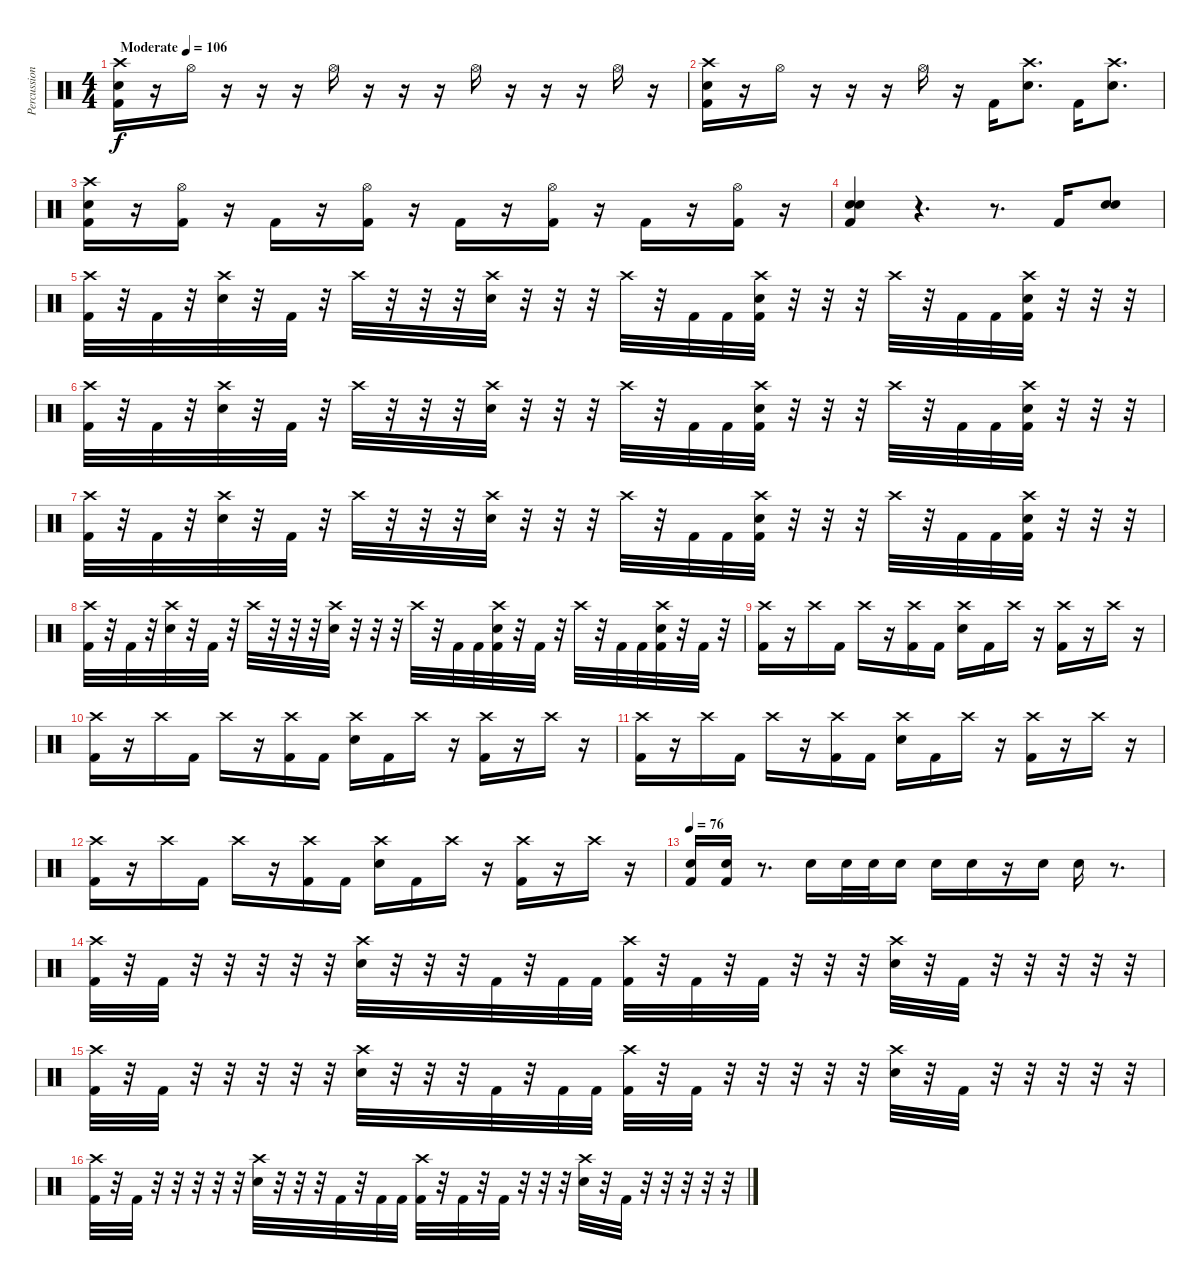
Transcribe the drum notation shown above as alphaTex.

\track ("Percussion" "Percussion") {instrument percussion}
\staff {score}
\articulation defaults
\ts (4 4)
\tempo (106 "Moderate")
\clef neutral
\ks c
("Crash high (hit)" "Electric Snare (hit)" "Kick (hit) 2").16{dy f} r.16 "Hi-Hat (open)".16 r.16 r.16 r.16 "Hi-Hat (open)".16 r.16 r.16 r.16 "Hi-Hat (open)".16 r.16 r.16 r.16 "Hi-Hat (open)".16 r.16 |
("Crash high (hit)" "Electric Snare (hit)" "Kick (hit) 2").16 r.16 "Hi-Hat (open)".16 r.16 r.16 r.16 "Hi-Hat (open)".16 r.16 "Kick (hit) 2".16 ("Crash high (hit)" "Electric Snare (hit)").8{d} "Kick (hit) 2".16 ("Crash high (hit)" "Electric Snare (hit)").8{d} |
("Crash high (hit)" "Electric Snare (hit)" "Kick (hit) 2").16 r.16 ("Hi-Hat (open)" "Kick (hit) 2").16 r.16 "Kick (hit) 2".16 r.16 ("Hi-Hat (open)" "Kick (hit) 2").16 r.16 "Kick (hit) 2".16 r.16 ("Hi-Hat (open)" "Kick (hit) 2").16 r.16 "Kick (hit) 2".16 r.16 ("Hi-Hat (open)" "Kick (hit) 2").16 r.16 |
("Electric Snare (hit)" "Electric Snare (hit)" "Kick (hit) 2").4 r.4{d} r.8{d} "Kick (hit) 2".16 ("Electric Snare (hit)" "Electric Snare (hit)").8 |
("Crash high (hit)" "Kick (hit) 2").32 r.32 "Kick (hit) 2".32 r.32 ("Crash high (hit)" "Electric Snare (hit)").32 r.32 "Kick (hit) 2".32 r.32 "Crash high (hit)".32 r.32 r.32 r.32 ("Crash high (hit)" "Electric Snare (hit)").32 r.32 r.32 r.32 "Crash high (hit)".32 r.32 "Kick (hit) 2".32 "Kick (hit) 2".32 ("Crash high (hit)" "Electric Snare (hit)" "Kick (hit) 2").32 r.32 r.32 r.32 "Crash high (hit)".32 r.32 "Kick (hit) 2".32 "Kick (hit) 2".32 ("Crash high (hit)" "Electric Snare (hit)" "Kick (hit) 2").32 r.32 r.32 r.32 |
("Crash high (hit)" "Kick (hit) 2").32 r.32 "Kick (hit) 2".32 r.32 ("Crash high (hit)" "Electric Snare (hit)").32 r.32 "Kick (hit) 2".32 r.32 "Crash high (hit)".32 r.32 r.32 r.32 ("Crash high (hit)" "Electric Snare (hit)").32 r.32 r.32 r.32 "Crash high (hit)".32 r.32 "Kick (hit) 2".32 "Kick (hit) 2".32 ("Crash high (hit)" "Electric Snare (hit)" "Kick (hit) 2").32 r.32 r.32 r.32 "Crash high (hit)".32 r.32 "Kick (hit) 2".32 "Kick (hit) 2".32 ("Crash high (hit)" "Electric Snare (hit)" "Kick (hit) 2").32 r.32 r.32 r.32 |
("Crash high (hit)" "Kick (hit) 2").32 r.32 "Kick (hit) 2".32 r.32 ("Crash high (hit)" "Electric Snare (hit)").32 r.32 "Kick (hit) 2".32 r.32 "Crash high (hit)".32 r.32 r.32 r.32 ("Crash high (hit)" "Electric Snare (hit)").32 r.32 r.32 r.32 "Crash high (hit)".32 r.32 "Kick (hit) 2".32 "Kick (hit) 2".32 ("Crash high (hit)" "Electric Snare (hit)" "Kick (hit) 2").32 r.32 r.32 r.32 "Crash high (hit)".32 r.32 "Kick (hit) 2".32 "Kick (hit) 2".32 ("Crash high (hit)" "Electric Snare (hit)" "Kick (hit) 2").32 r.32 r.32 r.32 |
("Crash high (hit)" "Kick (hit) 2").32 r.32 "Kick (hit) 2".32 r.32 ("Crash high (hit)" "Electric Snare (hit)").32 r.32 "Kick (hit) 2".32 r.32 "Crash high (hit)".32 r.32 r.32 r.32 ("Crash high (hit)" "Electric Snare (hit)").32 r.32 r.32 r.32 "Crash high (hit)".32 r.32 "Kick (hit) 2".32 "Kick (hit) 2".32 ("Crash high (hit)" "Electric Snare (hit)" "Kick (hit) 2").32 r.32 "Kick (hit) 2".32 r.32 "Crash high (hit)".32 r.32 "Kick (hit) 2".32 "Kick (hit) 2".32 ("Crash high (hit)" "Electric Snare (hit)" "Kick (hit) 2").32 r.32 "Kick (hit) 2".32 r.32 |
("Crash high (hit)" "Kick (hit) 2").16 r.16 "Crash high (hit)".16 "Kick (hit) 2".16 "Crash high (hit)".16 r.16 ("Crash high (hit)" "Kick (hit) 2").16 "Kick (hit) 2".16 ("Crash high (hit)" "Electric Snare (hit)").16 "Kick (hit) 2".16 "Crash high (hit)".16 r.16 ("Crash high (hit)" "Kick (hit) 2").16 r.16 "Crash high (hit)".16 r.16 |
("Crash high (hit)" "Kick (hit) 2").16 r.16 "Crash high (hit)".16 "Kick (hit) 2".16 "Crash high (hit)".16 r.16 ("Crash high (hit)" "Kick (hit) 2").16 "Kick (hit) 2".16 ("Crash high (hit)" "Electric Snare (hit)").16 "Kick (hit) 2".16 "Crash high (hit)".16 r.16 ("Crash high (hit)" "Kick (hit) 2").16 r.16 "Crash high (hit)".16 r.16 |
("Crash high (hit)" "Kick (hit) 2").16 r.16 "Crash high (hit)".16 "Kick (hit) 2".16 "Crash high (hit)".16 r.16 ("Crash high (hit)" "Kick (hit) 2").16 "Kick (hit) 2".16 ("Crash high (hit)" "Electric Snare (hit)").16 "Kick (hit) 2".16 "Crash high (hit)".16 r.16 ("Crash high (hit)" "Kick (hit) 2").16 r.16 "Crash high (hit)".16 r.16 |
("Crash high (hit)" "Kick (hit) 2").16 r.16 "Crash high (hit)".16 "Kick (hit) 2".16 "Crash high (hit)".16 r.16 ("Crash high (hit)" "Kick (hit) 2").16 "Kick (hit) 2".16 ("Crash high (hit)" "Electric Snare (hit)").16 "Kick (hit) 2".16 "Crash high (hit)".16 r.16 ("Crash high (hit)" "Kick (hit) 2").16 r.16 "Crash high (hit)".16 r.16 |
\tempo 76
("Electric Snare (hit)" "Kick (hit) 2").16 ("Electric Snare (hit)" "Kick (hit) 2").16 r.8{d} "Electric Snare (hit)".16 "Electric Snare (hit)".32 "Electric Snare (hit)".32 "Electric Snare (hit)".16 "Electric Snare (hit)".16 "Electric Snare (hit)".16 r.16 "Electric Snare (hit)".16 "Electric Snare (hit)".16 r.8{d} |
("Crash high (hit)" "Kick (hit) 2").32 r.32 "Kick (hit) 2".32 r.32 r.32 r.32 r.32 r.32 ("Crash high (hit)" "Electric Snare (hit)").32 r.32 r.32 r.32 "Kick (hit) 2".32 r.32 "Kick (hit) 2".32 "Kick (hit) 2".32 ("Crash high (hit)" "Kick (hit) 2").32 r.32 "Kick (hit) 2".32 r.32 "Kick (hit) 2".32 r.32 r.32 r.32 ("Crash high (hit)" "Electric Snare (hit)").32 r.32 "Kick (hit) 2".32 r.32 r.32 r.32 r.32 r.32 |
("Crash high (hit)" "Kick (hit) 2").32 r.32 "Kick (hit) 2".32 r.32 r.32 r.32 r.32 r.32 ("Crash high (hit)" "Electric Snare (hit)").32 r.32 r.32 r.32 "Kick (hit) 2".32 r.32 "Kick (hit) 2".32 "Kick (hit) 2".32 ("Crash high (hit)" "Kick (hit) 2").32 r.32 "Kick (hit) 2".32 r.32 r.32 r.32 r.32 r.32 ("Crash high (hit)" "Electric Snare (hit)").32 r.32 "Kick (hit) 2".32 r.32 r.32 r.32 r.32 r.32 |
("Crash high (hit)" "Kick (hit) 2").32 r.32 "Kick (hit) 2".32 r.32 r.32 r.32 r.32 r.32 ("Crash high (hit)" "Electric Snare (hit)").32 r.32 r.32 r.32 "Kick (hit) 2".32 r.32 "Kick (hit) 2".32 "Kick (hit) 2".32 ("Crash high (hit)" "Kick (hit) 2").32 r.32 "Kick (hit) 2".32 r.32 "Kick (hit) 2".32 r.32 r.32 r.32 ("Crash high (hit)" "Electric Snare (hit)").32 r.32 "Kick (hit) 2".32 r.32 r.32 r.32 r.32 r.32
